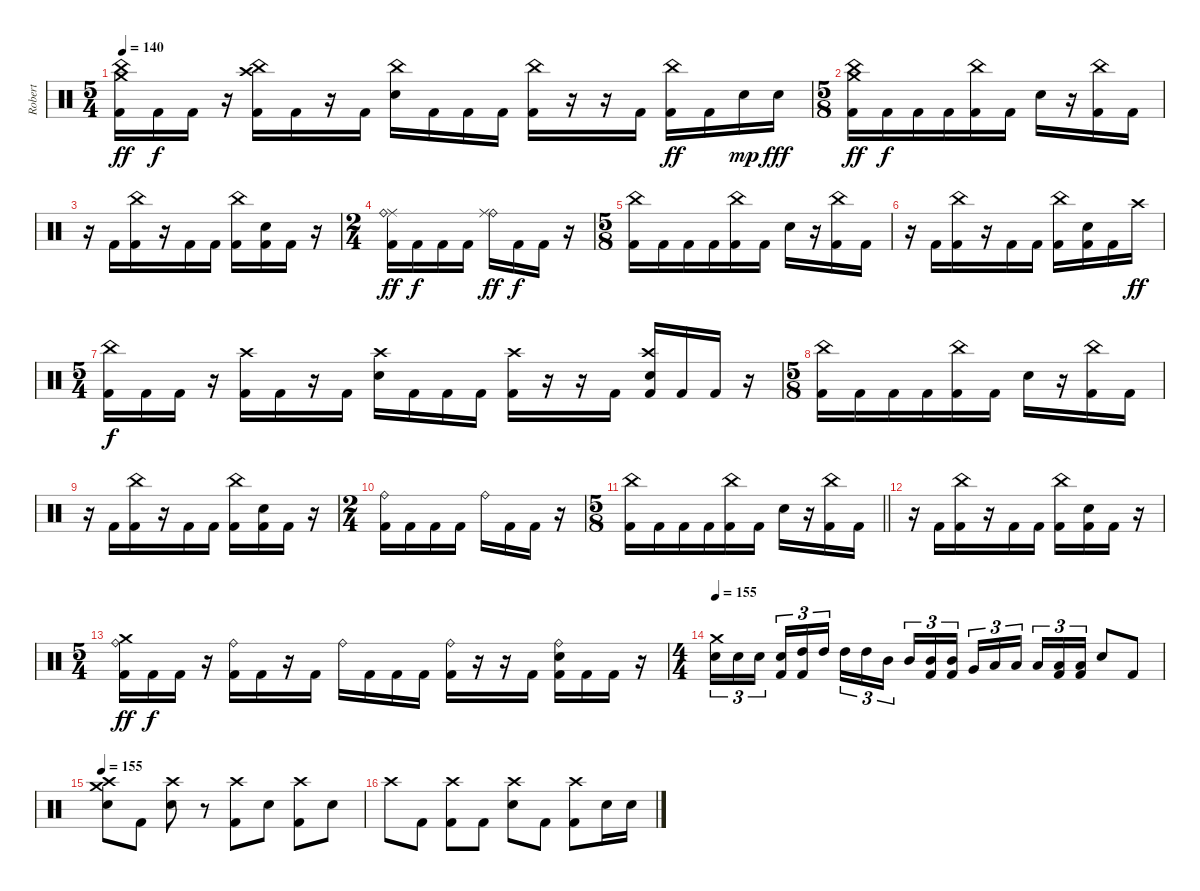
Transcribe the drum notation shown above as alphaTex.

\track ("Robert" "Robert") {instrument percussion}
\staff {score}
\articulation defaults
\ts (5 4)
\tempo 140
\clef neutral
\ks c
("Crash medium (hit)" "China (hit)" "Kick (hit) 2").16{dy ff} "Kick (hit) 2".16{dy f} "Kick (hit) 2".16 r.16 ("Crash high (hit)" "China (hit)" "Kick (hit) 2").16 "Kick (hit) 2".16 r.16 "Kick (hit) 2".16 ("China (hit)" "Electric Snare (hit)").16 "Kick (hit) 2".16 "Kick (hit) 2".16 "Kick (hit) 2".16 ("China (hit)" "Kick (hit) 2").16 r.16 r.16 "Kick (hit) 2".16 ("China (hit)" "Kick (hit) 2").16{dy ff} "Kick (hit) 2".16 "Electric Snare (hit)".16{dy mp} "Electric Snare (hit)".16{dy fff} |
\ts (5 8)
("Crash medium (hit)" "China (hit)" "Kick (hit) 2").16{dy ff} "Kick (hit) 2".16{dy f} "Kick (hit) 2".16 "Kick (hit) 2".16 ("China (hit)" "Kick (hit) 2").16 "Kick (hit) 2".16 "Electric Snare (hit)".16 r.16 ("China (hit)" "Kick (hit) 2").16 "Kick (hit) 2".16 |
r.16 "Kick (hit) 2".16 ("China (hit)" "Kick (hit) 2").16 r.16 "Kick (hit) 2".16 "Kick (hit) 2".16 ("China (hit)" "Kick (hit) 2").16 ("Electric Snare (hit)" "Kick (hit) 2").16 "Kick (hit) 2".16 r.16 |
\ts (2 4)
("Ride (middle)" "Ride (bell)" "Kick (hit) 2").16{dy ff} "Kick (hit) 2".16{dy f} "Kick (hit) 2".16 "Kick (hit) 2".16 ("Ride (bell)" "Ride (middle)").16{dy ff} "Kick (hit) 2".16{dy f} "Kick (hit) 2".16 r.16 |
\ts (5 8)
("China (hit)" "Kick (hit) 2").16 "Kick (hit) 2".16 "Kick (hit) 2".16 "Kick (hit) 2".16 ("China (hit)" "Kick (hit) 2").16 "Kick (hit) 2".16 "Electric Snare (hit)".16 r.16 ("China (hit)" "Kick (hit) 2").16 "Kick (hit) 2".16 |
r.16 "Kick (hit) 2".16 ("China (hit)" "Kick (hit) 2").16 r.16 "Kick (hit) 2".16 "Kick (hit) 2".16 ("China (hit)" "Kick (hit) 2").16 ("Electric Snare (hit)" "Kick (hit) 2").16 "Kick (hit) 2".16 "Crash high (hit)".16{dy ff} |
\ts (5 4)
("China (hit)" "Kick (hit) 2").16{dy f} "Kick (hit) 2".16 "Kick (hit) 2".16 r.16 ("Crash high (hit)" "Kick (hit) 2").16 "Kick (hit) 2".16 r.16 "Kick (hit) 2".16 ("Crash high (hit)" "Electric Snare (hit)").16 "Kick (hit) 2".16 "Kick (hit) 2".16 "Kick (hit) 2".16 ("Crash high (hit)" "Kick (hit) 2").16 r.16 r.16 "Kick (hit) 2".16 ("Crash high (hit)" "Electric Snare (hit)" "Kick (hit) 2").16 "Kick (hit) 2".16 "Kick (hit) 2".16 r.16 |
\ts (5 8)
("China (hit)" "Kick (hit) 2").16 "Kick (hit) 2".16 "Kick (hit) 2".16 "Kick (hit) 2".16 ("China (hit)" "Kick (hit) 2").16 "Kick (hit) 2".16 "Electric Snare (hit)".16 r.16 ("China (hit)" "Kick (hit) 2").16 "Kick (hit) 2".16 |
r.16 "Kick (hit) 2".16 ("China (hit)" "Kick (hit) 2").16 r.16 "Kick (hit) 2".16 "Kick (hit) 2".16 ("China (hit)" "Kick (hit) 2").16 ("Electric Snare (hit)" "Kick (hit) 2").16 "Kick (hit) 2".16 r.16 |
\ts (2 4)
("Ride (bell)" "Kick (hit) 2").16 "Kick (hit) 2".16 "Kick (hit) 2".16 "Kick (hit) 2".16 "Ride (bell)".16 "Kick (hit) 2".16 "Kick (hit) 2".16 r.16 |
\ts (5 8)
\barLineRight lightlight
("China (hit)" "Kick (hit) 2").16 "Kick (hit) 2".16 "Kick (hit) 2".16 "Kick (hit) 2".16 ("China (hit)" "Kick (hit) 2").16 "Kick (hit) 2".16 "Electric Snare (hit)".16 r.16 ("China (hit)" "Kick (hit) 2").16 "Kick (hit) 2".16 |
r.16 "Kick (hit) 2".16 ("China (hit)" "Kick (hit) 2").16 r.16 "Kick (hit) 2".16 "Kick (hit) 2".16 ("China (hit)" "Kick (hit) 2").16 ("Electric Snare (hit)" "Kick (hit) 2").16 "Kick (hit) 2".16 r.16 |
\ts (5 4)
("Crash medium (hit)" "Ride (bell)" "Kick (hit) 2").16{dy ff} "Kick (hit) 2".16{dy f} "Kick (hit) 2".16 r.16 ("Ride (bell)" "Kick (hit) 2").16 "Kick (hit) 2".16 r.16 "Kick (hit) 2".16 "Ride (bell)".16 "Kick (hit) 2".16 "Kick (hit) 2".16 "Kick (hit) 2".16 ("Ride (bell)" "Kick (hit) 2").16 r.16 r.16 "Kick (hit) 2".16 ("Ride (bell)" "Electric Snare (hit)" "Kick (hit) 2").16 "Kick (hit) 2".16 "Kick (hit) 2".16 r.16 |
\ts (4 4)
\tempo 155
("Electric Snare (hit)" "Crash medium (hit)").16{tu (3 2)} "Electric Snare (hit)".16{tu (3 2)} "Electric Snare (hit)".16{tu (3 2) beam splitsecondary} ("Electric Snare (hit)" "Kick (hit) 2").16{tu (3 2)} ("High Tom (hit)" "Kick (hit) 2").16{tu (3 2)} "High Tom (hit)".16{tu (3 2)} "High Tom (hit)".16{tu (3 2)} "High Tom (hit)".16{tu (3 2)} "Mid Tom (hit)".16{tu (3 2) beam splitsecondary} "Mid Tom (hit)".16{tu (3 2)} ("Mid Tom (hit)" "Kick (hit) 2").16{tu (3 2)} ("Mid Tom (hit)" "Kick (hit) 2").16{tu (3 2)} "Very Low Tom (hit)".16{tu (3 2)} "Low Floor Tom (hit)".16{tu (3 2)} "Low Floor Tom (hit)".16{tu (3 2) beam splitsecondary} "Low Floor Tom (hit)".16{tu (3 2)} ("Low Floor Tom (hit)" "Kick (hit) 2").16{tu (3 2)} ("Low Floor Tom (hit)" "Kick (hit) 2").16{tu (3 2)} "Electric Snare (hit)".8 "Kick (hit) 2".8 |
\tempo 155
("Crash medium (hit)" "Electric Snare (hit)" "Crash high (hit)").8 "Kick (hit) 2".8 ("Crash high (hit)" "Electric Snare (hit)").8 r.8 ("Crash high (hit)" "Kick (hit) 2").8 "Electric Snare (hit)".8 ("Crash high (hit)" "Kick (hit) 2").8 "Electric Snare (hit)".8 |
"Crash high (hit)".8 "Kick (hit) 2".8 ("Kick (hit) 2" "Crash high (hit)").8 "Kick (hit) 2".8 ("Electric Snare (hit)" "Crash high (hit)").8 "Kick (hit) 2".8 ("Kick (hit) 2" "Crash high (hit)").8 "Electric Snare (hit)".16 "Electric Snare (hit)".16
